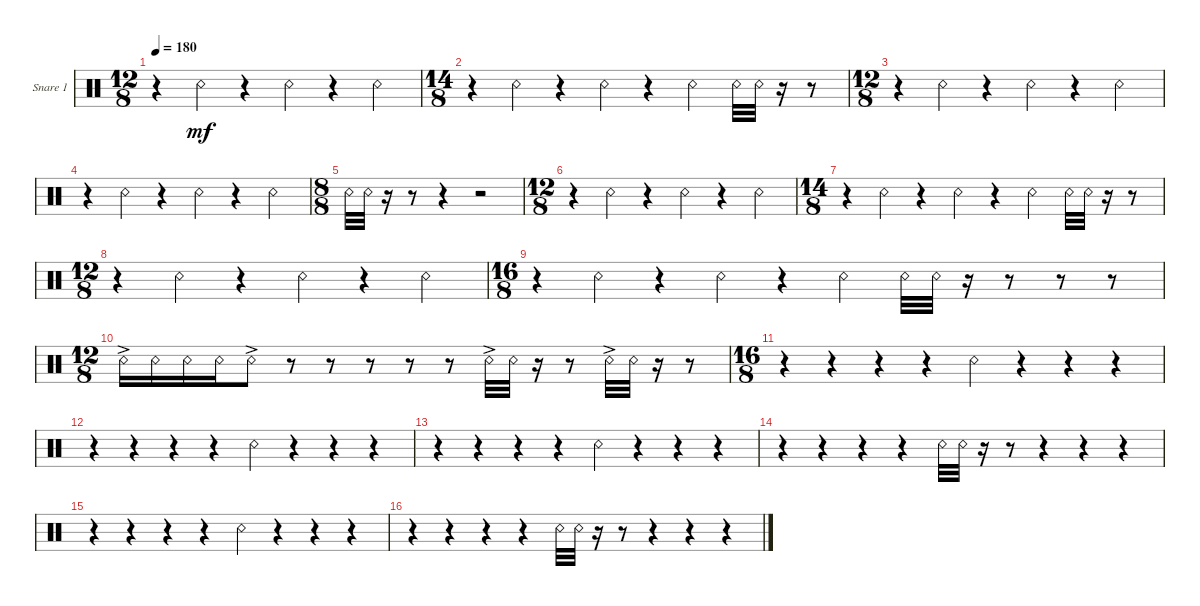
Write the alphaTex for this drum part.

\defaultSystemsLayout 4
\bracketExtendMode groupsimilarinstruments
\firstSystemTrackNameOrientation horizontal
\otherSystemsTrackNameOrientation horizontal
\track ("Snare 1" "Snare 1") {instrument percussion}
\staff {score}
\articulation defaults
\ts (12 8)
\tempo 180
\clef neutral
\ks c
r.4{dy mf} "Snare (rim shot)".4 r.4 "Snare (rim shot)".4 r.4 "Snare (rim shot)".4 |
\ts (14 8)
r.4 "Snare (rim shot)".4 r.4 "Snare (rim shot)".4 r.4 "Snare (rim shot)".4 "Snare (rim shot)".32 "Snare (rim shot)".32 r.16 r.8 |
\ts (12 8)
r.4 "Snare (rim shot)".4 r.4 "Snare (rim shot)".4 r.4 "Snare (rim shot)".4 |
r.4 "Snare (rim shot)".4 r.4 "Snare (rim shot)".4 r.4 "Snare (rim shot)".4 |
\ts (8 8)
"Snare (rim shot)".32 "Snare (rim shot)".32 r.16 r.8 r.4 r.2 |
\ts (12 8)
r.4 "Snare (rim shot)".4 r.4 "Snare (rim shot)".4 r.4 "Snare (rim shot)".4 |
\ts (14 8)
r.4 "Snare (rim shot)".4 r.4 "Snare (rim shot)".4 r.4 "Snare (rim shot)".4 "Snare (rim shot)".32 "Snare (rim shot)".32 r.16 r.8 |
\ts (12 8)
r.4 "Snare (rim shot)".4 r.4 "Snare (rim shot)".4 r.4 "Snare (rim shot)".4 |
\ts (16 8)
r.4 "Snare (rim shot)".4 r.4 "Snare (rim shot)".4 r.4 "Snare (rim shot)".4 "Snare (rim shot)".32 "Snare (rim shot)".32 r.16 r.8 r.8 r.8 |
\ts (12 8)
"Snare (rim shot)"{ac}.16 "Snare (rim shot)".16 "Snare (rim shot)".16 "Snare (rim shot)".16 "Snare (rim shot)"{ac}.8 r.8 r.8 r.8 r.8 r.8 "Snare (rim shot)"{ac}.32 "Snare (rim shot)".32 r.16 r.8 "Snare (rim shot)"{ac}.32 "Snare (rim shot)".32 r.16 r.8 |
\ts (16 8)
r.4 r.4 r.4 r.4 "Snare (rim shot)".4 r.4 r.4 r.4 |
r.4 r.4 r.4 r.4 "Snare (rim shot)".4 r.4 r.4 r.4 |
r.4 r.4 r.4 r.4 "Snare (rim shot)".4 r.4 r.4 r.4 |
r.4 r.4 r.4 r.4 "Snare (rim shot)".32 "Snare (rim shot)".32 r.16 r.8 r.4 r.4 r.4 |
r.4 r.4 r.4 r.4 "Snare (rim shot)".4 r.4 r.4 r.4 |
r.4 r.4 r.4 r.4 "Snare (rim shot)".32 "Snare (rim shot)".32 r.16 r.8 r.4 r.4 r.4
